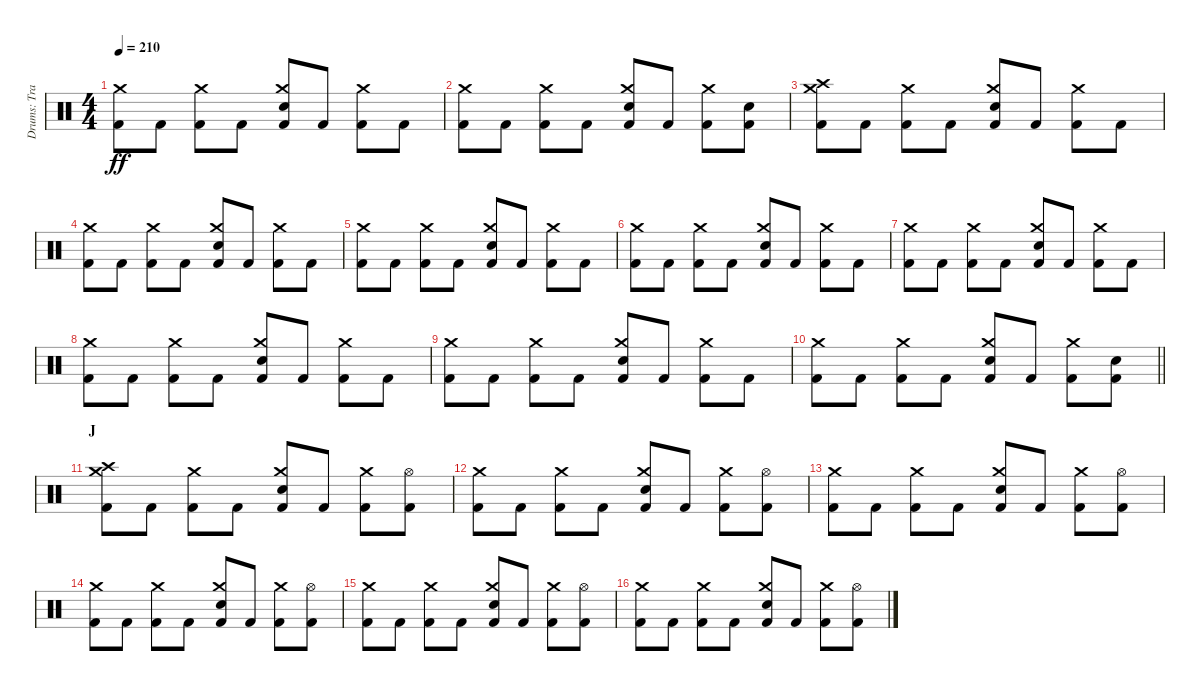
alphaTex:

\track ("Drums: Trav Clarke" "Drums: Tra") {instrument percussion}
\staff {score}
\articulation defaults
\ts (4 4)
\tempo 210
\clef neutral
\ks c
("Kick (hit) 2" "Crash medium (hit)").8{dy ff} "Kick (hit) 2".8 ("Kick (hit) 2" "Crash medium (hit)").8 "Kick (hit) 2".8 ("Kick (hit) 2" "Snare (hit) 2" "Crash medium (hit)").8 "Kick (hit) 2".8 ("Kick (hit) 2" "Crash medium (hit)").8 "Kick (hit) 2".8 |
("Kick (hit) 2" "Crash medium (hit)").8 "Kick (hit) 2".8 ("Kick (hit) 2" "Crash medium (hit)").8 "Kick (hit) 2".8 ("Kick (hit) 2" "Snare (hit) 2" "Crash medium (hit)").8 "Kick (hit) 2".8 ("Kick (hit) 2" "Crash medium (hit)").8 ("Kick (hit) 2" "Snare (hit) 2").8 |
("Kick (hit) 2" "Crash high (hit)" "Crash medium (hit)").8 "Kick (hit) 2".8 ("Kick (hit) 2" "Crash medium (hit)").8 "Kick (hit) 2".8 ("Kick (hit) 2" "Snare (hit) 2" "Crash medium (hit)").8 "Kick (hit) 2".8 ("Kick (hit) 2" "Crash medium (hit)").8 "Kick (hit) 2".8 |
("Kick (hit) 2" "Crash medium (hit)").8 "Kick (hit) 2".8 ("Kick (hit) 2" "Crash medium (hit)").8 "Kick (hit) 2".8 ("Kick (hit) 2" "Snare (hit) 2" "Crash medium (hit)").8 "Kick (hit) 2".8 ("Kick (hit) 2" "Crash medium (hit)").8 "Kick (hit) 2".8 |
("Kick (hit) 2" "Crash medium (hit)").8 "Kick (hit) 2".8 ("Kick (hit) 2" "Crash medium (hit)").8 "Kick (hit) 2".8 ("Kick (hit) 2" "Snare (hit) 2" "Crash medium (hit)").8 "Kick (hit) 2".8 ("Kick (hit) 2" "Crash medium (hit)").8 "Kick (hit) 2".8 |
("Kick (hit) 2" "Crash medium (hit)").8 "Kick (hit) 2".8 ("Kick (hit) 2" "Crash medium (hit)").8 "Kick (hit) 2".8 ("Kick (hit) 2" "Snare (hit) 2" "Crash medium (hit)").8 "Kick (hit) 2".8 ("Kick (hit) 2" "Crash medium (hit)").8 "Kick (hit) 2".8 |
("Kick (hit) 2" "Crash medium (hit)").8 "Kick (hit) 2".8 ("Kick (hit) 2" "Crash medium (hit)").8 "Kick (hit) 2".8 ("Kick (hit) 2" "Snare (hit) 2" "Crash medium (hit)").8 "Kick (hit) 2".8 ("Kick (hit) 2" "Crash medium (hit)").8 "Kick (hit) 2".8 |
("Kick (hit) 2" "Crash medium (hit)").8 "Kick (hit) 2".8 ("Kick (hit) 2" "Crash medium (hit)").8 "Kick (hit) 2".8 ("Kick (hit) 2" "Snare (hit) 2" "Crash medium (hit)").8 "Kick (hit) 2".8 ("Kick (hit) 2" "Crash medium (hit)").8 "Kick (hit) 2".8 |
("Kick (hit) 2" "Crash medium (hit)").8 "Kick (hit) 2".8 ("Kick (hit) 2" "Crash medium (hit)").8 "Kick (hit) 2".8 ("Kick (hit) 2" "Snare (hit) 2" "Crash medium (hit)").8 "Kick (hit) 2".8 ("Kick (hit) 2" "Crash medium (hit)").8 "Kick (hit) 2".8 |
\barLineRight lightlight
("Kick (hit) 2" "Crash medium (hit)").8 "Kick (hit) 2".8 ("Kick (hit) 2" "Crash medium (hit)").8 "Kick (hit) 2".8 ("Kick (hit) 2" "Snare (hit) 2" "Crash medium (hit)").8 "Kick (hit) 2".8 ("Kick (hit) 2" "Crash medium (hit)").8 ("Kick (hit) 2" "Snare (hit) 2").8 |
\section ("" "J")
("Kick (hit) 2" "Crash high (hit)" "Crash medium (hit)").8 "Kick (hit) 2".8 ("Kick (hit) 2" "Crash medium (hit)").8 "Kick (hit) 2".8 ("Kick (hit) 2" "Snare (hit) 2" "Crash medium (hit)").8 "Kick (hit) 2".8 ("Kick (hit) 2" "Crash medium (hit)").8 ("Kick (hit) 2" "Hi-Hat (open)").8 |
("Kick (hit) 2" "Crash medium (hit)").8 "Kick (hit) 2".8 ("Kick (hit) 2" "Crash medium (hit)").8 "Kick (hit) 2".8 ("Kick (hit) 2" "Snare (hit) 2" "Crash medium (hit)").8 "Kick (hit) 2".8 ("Kick (hit) 2" "Crash medium (hit)").8 ("Kick (hit) 2" "Hi-Hat (open)").8 |
("Kick (hit) 2" "Crash medium (hit)").8 "Kick (hit) 2".8 ("Kick (hit) 2" "Crash medium (hit)").8 "Kick (hit) 2".8 ("Kick (hit) 2" "Snare (hit) 2" "Crash medium (hit)").8 "Kick (hit) 2".8 ("Kick (hit) 2" "Crash medium (hit)").8 ("Kick (hit) 2" "Hi-Hat (open)").8 |
("Kick (hit) 2" "Crash medium (hit)").8 "Kick (hit) 2".8 ("Kick (hit) 2" "Crash medium (hit)").8 "Kick (hit) 2".8 ("Kick (hit) 2" "Snare (hit) 2" "Crash medium (hit)").8 "Kick (hit) 2".8 ("Kick (hit) 2" "Crash medium (hit)").8 ("Kick (hit) 2" "Hi-Hat (open)").8 |
("Kick (hit) 2" "Crash medium (hit)").8 "Kick (hit) 2".8 ("Kick (hit) 2" "Crash medium (hit)").8 "Kick (hit) 2".8 ("Kick (hit) 2" "Snare (hit) 2" "Crash medium (hit)").8 "Kick (hit) 2".8 ("Kick (hit) 2" "Crash medium (hit)").8 ("Kick (hit) 2" "Hi-Hat (open)").8 |
("Kick (hit) 2" "Crash medium (hit)").8 "Kick (hit) 2".8 ("Kick (hit) 2" "Crash medium (hit)").8 "Kick (hit) 2".8 ("Kick (hit) 2" "Snare (hit) 2" "Crash medium (hit)").8 "Kick (hit) 2".8 ("Kick (hit) 2" "Crash medium (hit)").8 ("Kick (hit) 2" "Hi-Hat (open)").8
